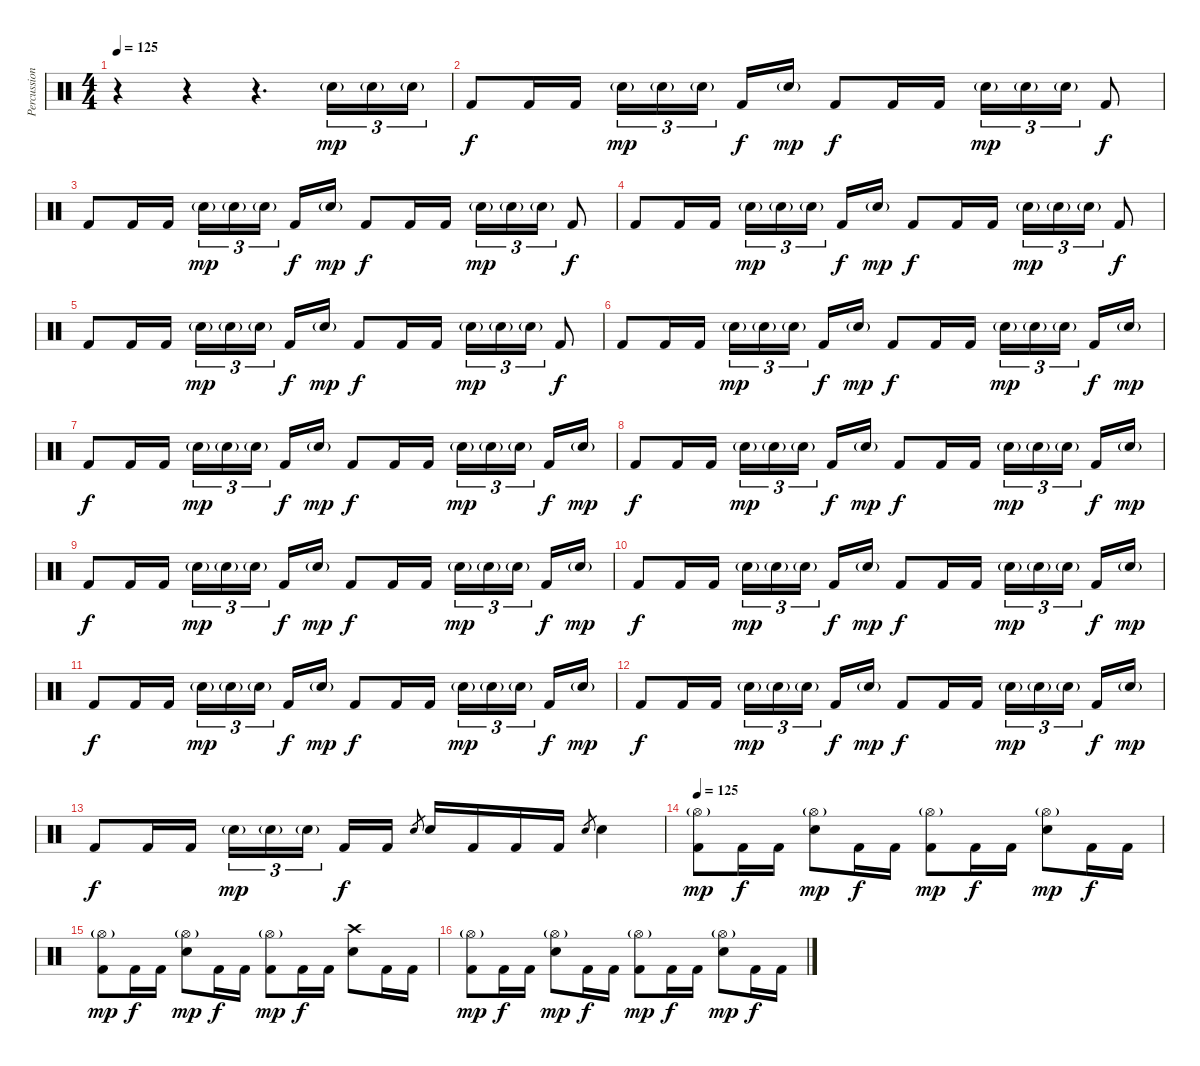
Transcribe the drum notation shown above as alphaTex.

\track ("Percussion" "Percussion") {instrument percussion}
\staff {score}
\articulation defaults
\ts (4 4)
\tempo 125
\tempo 120
\tempo 125
\clef neutral
\ks c
r.4{dy mp} r.4 r.4{d} "Electric Snare (hit)"{g}.16{tu (3 2)} "Electric Snare (hit)"{g}.16{tu (3 2)} "Electric Snare (hit)"{g}.16{tu (3 2)} |
"Kick (hit) 2".8{dy f} "Kick (hit) 2".16 "Kick (hit) 2".16 "Electric Snare (hit)"{g}.16{tu (3 2) dy mp} "Electric Snare (hit)"{g}.16{tu (3 2)} "Electric Snare (hit)"{g}.16{tu (3 2)} "Kick (hit) 2".16{dy f} "Electric Snare (hit)"{g}.16{dy mp} "Kick (hit) 2".8{dy f} "Kick (hit) 2".16 "Kick (hit) 2".16 "Electric Snare (hit)"{g}.16{tu (3 2) dy mp} "Electric Snare (hit)"{g}.16{tu (3 2)} "Electric Snare (hit)"{g}.16{tu (3 2)} "Kick (hit) 2".8{dy f} |
"Kick (hit) 2".8 "Kick (hit) 2".16 "Kick (hit) 2".16 "Electric Snare (hit)"{g}.16{tu (3 2) dy mp} "Electric Snare (hit)"{g}.16{tu (3 2)} "Electric Snare (hit)"{g}.16{tu (3 2)} "Kick (hit) 2".16{dy f} "Electric Snare (hit)"{g}.16{dy mp} "Kick (hit) 2".8{dy f} "Kick (hit) 2".16 "Kick (hit) 2".16 "Electric Snare (hit)"{g}.16{tu (3 2) dy mp} "Electric Snare (hit)"{g}.16{tu (3 2)} "Electric Snare (hit)"{g}.16{tu (3 2)} "Kick (hit) 2".8{dy f} |
"Kick (hit) 2".8 "Kick (hit) 2".16 "Kick (hit) 2".16 "Electric Snare (hit)"{g}.16{tu (3 2) dy mp} "Electric Snare (hit)"{g}.16{tu (3 2)} "Electric Snare (hit)"{g}.16{tu (3 2)} "Kick (hit) 2".16{dy f} "Electric Snare (hit)"{g}.16{dy mp} "Kick (hit) 2".8{dy f} "Kick (hit) 2".16 "Kick (hit) 2".16 "Electric Snare (hit)"{g}.16{tu (3 2) dy mp} "Electric Snare (hit)"{g}.16{tu (3 2)} "Electric Snare (hit)"{g}.16{tu (3 2)} "Kick (hit) 2".8{dy f} |
"Kick (hit) 2".8 "Kick (hit) 2".16 "Kick (hit) 2".16 "Electric Snare (hit)"{g}.16{tu (3 2) dy mp} "Electric Snare (hit)"{g}.16{tu (3 2)} "Electric Snare (hit)"{g}.16{tu (3 2)} "Kick (hit) 2".16{dy f} "Electric Snare (hit)"{g}.16{dy mp} "Kick (hit) 2".8{dy f} "Kick (hit) 2".16 "Kick (hit) 2".16 "Electric Snare (hit)"{g}.16{tu (3 2) dy mp} "Electric Snare (hit)"{g}.16{tu (3 2)} "Electric Snare (hit)"{g}.16{tu (3 2)} "Kick (hit) 2".8{dy f} |
"Kick (hit) 2".8 "Kick (hit) 2".16 "Kick (hit) 2".16 "Electric Snare (hit)"{g}.16{tu (3 2) dy mp} "Electric Snare (hit)"{g}.16{tu (3 2)} "Electric Snare (hit)"{g}.16{tu (3 2)} "Kick (hit) 2".16{dy f} "Electric Snare (hit)"{g}.16{dy mp} "Kick (hit) 2".8{dy f} "Kick (hit) 2".16 "Kick (hit) 2".16 "Electric Snare (hit)"{g}.16{tu (3 2) dy mp} "Electric Snare (hit)"{g}.16{tu (3 2)} "Electric Snare (hit)"{g}.16{tu (3 2)} "Kick (hit) 2".16{dy f} "Electric Snare (hit)"{g}.16{dy mp} |
"Kick (hit) 2".8{dy f} "Kick (hit) 2".16 "Kick (hit) 2".16 "Electric Snare (hit)"{g}.16{tu (3 2) dy mp} "Electric Snare (hit)"{g}.16{tu (3 2)} "Electric Snare (hit)"{g}.16{tu (3 2)} "Kick (hit) 2".16{dy f} "Electric Snare (hit)"{g}.16{dy mp} "Kick (hit) 2".8{dy f} "Kick (hit) 2".16 "Kick (hit) 2".16 "Electric Snare (hit)"{g}.16{tu (3 2) dy mp} "Electric Snare (hit)"{g}.16{tu (3 2)} "Electric Snare (hit)"{g}.16{tu (3 2)} "Kick (hit) 2".16{dy f} "Electric Snare (hit)"{g}.16{dy mp} |
"Kick (hit) 2".8{dy f} "Kick (hit) 2".16 "Kick (hit) 2".16 "Electric Snare (hit)"{g}.16{tu (3 2) dy mp} "Electric Snare (hit)"{g}.16{tu (3 2)} "Electric Snare (hit)"{g}.16{tu (3 2)} "Kick (hit) 2".16{dy f} "Electric Snare (hit)"{g}.16{dy mp} "Kick (hit) 2".8{dy f} "Kick (hit) 2".16 "Kick (hit) 2".16 "Electric Snare (hit)"{g}.16{tu (3 2) dy mp} "Electric Snare (hit)"{g}.16{tu (3 2)} "Electric Snare (hit)"{g}.16{tu (3 2)} "Kick (hit) 2".16{dy f} "Electric Snare (hit)"{g}.16{dy mp} |
"Kick (hit) 2".8{dy f} "Kick (hit) 2".16 "Kick (hit) 2".16 "Electric Snare (hit)"{g}.16{tu (3 2) dy mp} "Electric Snare (hit)"{g}.16{tu (3 2)} "Electric Snare (hit)"{g}.16{tu (3 2)} "Kick (hit) 2".16{dy f} "Electric Snare (hit)"{g}.16{dy mp} "Kick (hit) 2".8{dy f} "Kick (hit) 2".16 "Kick (hit) 2".16 "Electric Snare (hit)"{g}.16{tu (3 2) dy mp} "Electric Snare (hit)"{g}.16{tu (3 2)} "Electric Snare (hit)"{g}.16{tu (3 2)} "Kick (hit) 2".16{dy f} "Electric Snare (hit)"{g}.16{dy mp} |
"Kick (hit) 2".8{dy f} "Kick (hit) 2".16 "Kick (hit) 2".16 "Electric Snare (hit)"{g}.16{tu (3 2) dy mp} "Electric Snare (hit)"{g}.16{tu (3 2)} "Electric Snare (hit)"{g}.16{tu (3 2)} "Kick (hit) 2".16{dy f} "Electric Snare (hit)"{g}.16{dy mp} "Kick (hit) 2".8{dy f} "Kick (hit) 2".16 "Kick (hit) 2".16 "Electric Snare (hit)"{g}.16{tu (3 2) dy mp} "Electric Snare (hit)"{g}.16{tu (3 2)} "Electric Snare (hit)"{g}.16{tu (3 2)} "Kick (hit) 2".16{dy f} "Electric Snare (hit)"{g}.16{dy mp} |
"Kick (hit) 2".8{dy f} "Kick (hit) 2".16 "Kick (hit) 2".16 "Electric Snare (hit)"{g}.16{tu (3 2) dy mp} "Electric Snare (hit)"{g}.16{tu (3 2)} "Electric Snare (hit)"{g}.16{tu (3 2)} "Kick (hit) 2".16{dy f} "Electric Snare (hit)"{g}.16{dy mp} "Kick (hit) 2".8{dy f} "Kick (hit) 2".16 "Kick (hit) 2".16 "Electric Snare (hit)"{g}.16{tu (3 2) dy mp} "Electric Snare (hit)"{g}.16{tu (3 2)} "Electric Snare (hit)"{g}.16{tu (3 2)} "Kick (hit) 2".16{dy f} "Electric Snare (hit)"{g}.16{dy mp} |
"Kick (hit) 2".8{dy f} "Kick (hit) 2".16 "Kick (hit) 2".16 "Electric Snare (hit)"{g}.16{tu (3 2) dy mp} "Electric Snare (hit)"{g}.16{tu (3 2)} "Electric Snare (hit)"{g}.16{tu (3 2)} "Kick (hit) 2".16{dy f} "Electric Snare (hit)"{g}.16{dy mp} "Kick (hit) 2".8{dy f} "Kick (hit) 2".16 "Kick (hit) 2".16 "Electric Snare (hit)"{g}.16{tu (3 2) dy mp} "Electric Snare (hit)"{g}.16{tu (3 2)} "Electric Snare (hit)"{g}.16{tu (3 2)} "Kick (hit) 2".16{dy f} "Electric Snare (hit)"{g}.16{dy mp} |
"Kick (hit) 2".8{dy f} "Kick (hit) 2".16 "Kick (hit) 2".16 "Electric Snare (hit)"{g}.16{tu (3 2) dy mp} "Electric Snare (hit)"{g}.16{tu (3 2)} "Electric Snare (hit)"{g}.16{tu (3 2)} "Kick (hit) 2".16{dy f} "Kick (hit) 2".16 "Electric Snare (hit)".8{gr} "Electric Snare (hit)".16 "Kick (hit) 2".16 "Kick (hit) 2".16 "Kick (hit) 2".16 "Electric Snare (hit)".8{gr} "Electric Snare (hit)".4 |
\tempo 125
("Hi-Hat (open)"{g} "Kick (hit) 2").8{dy mp} "Kick (hit) 2".16{dy f} "Kick (hit) 2".16 ("Hi-Hat (open)"{g} "Electric Snare (hit)").8{dy mp} "Kick (hit) 2".16{dy f} "Kick (hit) 2".16 ("Hi-Hat (open)"{g} "Kick (hit) 2").8{dy mp} "Kick (hit) 2".16{dy f} "Kick (hit) 2".16 ("Hi-Hat (open)"{g} "Electric Snare (hit)").8{dy mp} "Kick (hit) 2".16{dy f} "Kick (hit) 2".16 |
("Hi-Hat (open)"{g} "Kick (hit) 2").8{dy mp} "Kick (hit) 2".16{dy f} "Kick (hit) 2".16 ("Hi-Hat (open)"{g} "Electric Snare (hit)").8{dy mp} "Kick (hit) 2".16{dy f} "Kick (hit) 2".16 ("Hi-Hat (open)"{g} "Kick (hit) 2").8{dy mp} "Kick (hit) 2".16{dy f} "Kick (hit) 2".16 ("Crash high (hit)" "Electric Snare (hit)").8 "Kick (hit) 2".16 "Kick (hit) 2".16 |
("Hi-Hat (open)"{g} "Kick (hit) 2").8{dy mp} "Kick (hit) 2".16{dy f} "Kick (hit) 2".16 ("Hi-Hat (open)"{g} "Electric Snare (hit)").8{dy mp} "Kick (hit) 2".16{dy f} "Kick (hit) 2".16 ("Hi-Hat (open)"{g} "Kick (hit) 2").8{dy mp} "Kick (hit) 2".16{dy f} "Kick (hit) 2".16 ("Hi-Hat (open)"{g} "Electric Snare (hit)").8{dy mp} "Kick (hit) 2".16{dy f} "Kick (hit) 2".16
